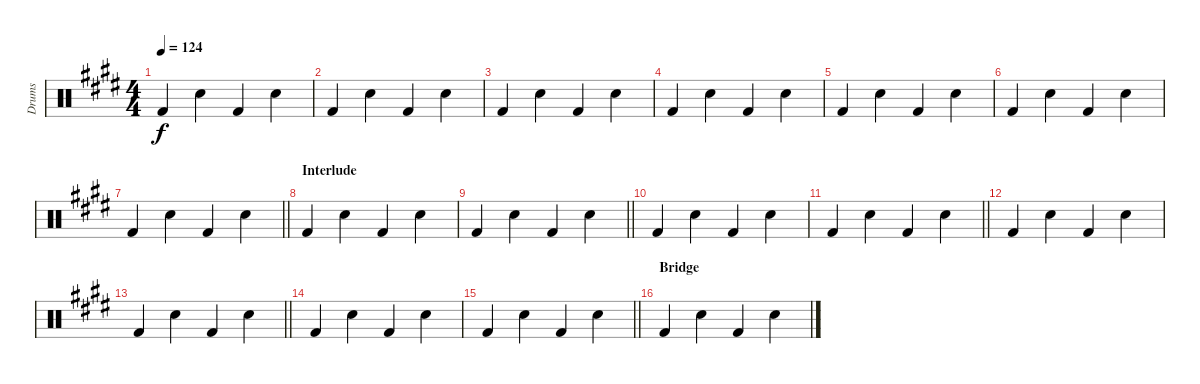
\track ("Drums" "Drums") {instrument percussion}
\staff {score}
\articulation defaults
\ts (4 4)
\tempo 124
\clef neutral
\ks e "Kick (hit) 2".4{dy f} "Snare (hit) 2".4 "Kick (hit) 2".4 "Snare (hit) 2".4
|
"Kick (hit) 2".4 "Snare (hit) 2".4 "Kick (hit) 2".4 "Snare (hit) 2".4 |
"Kick (hit) 2".4 "Snare (hit) 2".4 "Kick (hit) 2".4 "Snare (hit) 2".4 |
"Kick (hit) 2".4 "Snare (hit) 2".4 "Kick (hit) 2".4 "Snare (hit) 2".4 |
"Kick (hit) 2".4 "Snare (hit) 2".4 "Kick (hit) 2".4 "Snare (hit) 2".4 |
"Kick (hit) 2".4 "Snare (hit) 2".4 "Kick (hit) 2".4 "Snare (hit) 2".4 |
\barLineRight lightlight "Kick (hit) 2".4 "Snare (hit) 2".4 "Kick (hit) 2".4 "Snare (hit) 2".4
|
\section ("" "Interlude")
"Kick (hit) 2".4 "Snare (hit) 2".4 "Kick (hit) 2".4 "Snare (hit) 2".4 |
\barLineRight lightlight "Kick (hit) 2".4 "Snare (hit) 2".4 "Kick (hit) 2".4 "Snare (hit) 2".4
|
"Kick (hit) 2".4 "Snare (hit) 2".4 "Kick (hit) 2".4 "Snare (hit) 2".4 |
\barLineRight lightlight "Kick (hit) 2".4 "Snare (hit) 2".4 "Kick (hit) 2".4 "Snare (hit) 2".4
|
"Kick (hit) 2".4 "Snare (hit) 2".4 "Kick (hit) 2".4 "Snare (hit) 2".4 |
\barLineRight lightlight "Kick (hit) 2".4 "Snare (hit) 2".4 "Kick (hit) 2".4 "Snare (hit) 2".4
|
"Kick (hit) 2".4 "Snare (hit) 2".4 "Kick (hit) 2".4 "Snare (hit) 2".4 |
\barLineRight lightlight "Kick (hit) 2".4 "Snare (hit) 2".4 "Kick (hit) 2".4 "Snare (hit) 2".4
|
\section ("" "Bridge")
"Kick (hit) 2".4 "Snare (hit) 2".4 "Kick (hit) 2".4 "Snare (hit) 2".4
